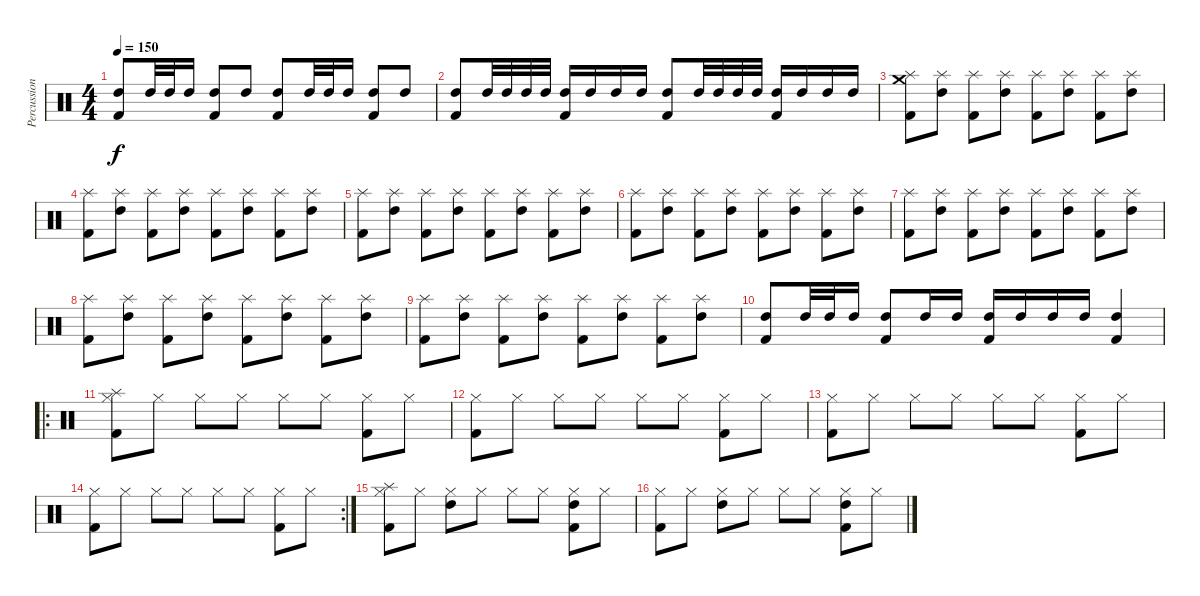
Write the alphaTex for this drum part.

\track ("Percussions" "Percussion") {instrument percussion}
\staff {score}
\articulation defaults
\ts (4 4)
\tempo 150
\clef neutral
\ks c
("Kick (hit) 2" "High Tom (hit)").8{dy f} "High Tom (hit)".32 "High Tom (hit)".32 "High Tom (hit)".16 ("Kick (hit) 2" "High Tom (hit)").8 "High Tom (hit)".8 ("Kick (hit) 2" "High Tom (hit)").8 "High Tom (hit)".32 "High Tom (hit)".32 "High Tom (hit)".16 ("Kick (hit) 2" "High Tom (hit)").8 "High Tom (hit)".8 |
("Kick (hit) 2" "High Tom (hit)").8 "High Tom (hit)".32 "High Tom (hit)".32 "High Tom (hit)".32 "High Tom (hit)".32 ("Kick (hit) 2" "High Tom (hit)").16 "High Tom (hit)".16 "High Tom (hit)".16 "High Tom (hit)".16 ("Kick (hit) 2" "High Tom (hit)").8 "High Tom (hit)".32 "High Tom (hit)".32 "High Tom (hit)".32 "High Tom (hit)".32 ("Kick (hit) 2" "High Tom (hit)").16 "High Tom (hit)".16 "High Tom (hit)".16 "High Tom (hit)".16 |
("Kick (hit) 2" "Crash medium (hit)" "Splash (hit)").8 ("High Tom (hit)" "Splash (hit)").8 ("Kick (hit) 2" "Splash (hit)").8 ("High Tom (hit)" "Splash (hit)").8 ("Kick (hit) 2" "Splash (hit)").8 ("High Tom (hit)" "Splash (hit)").8 ("Kick (hit) 2" "Splash (hit)").8 ("High Tom (hit)" "Splash (hit)").8 |
("Kick (hit) 2" "Splash (hit)").8 ("High Tom (hit)" "Splash (hit)").8 ("Kick (hit) 2" "Splash (hit)").8 ("High Tom (hit)" "Splash (hit)").8 ("Kick (hit) 2" "Splash (hit)").8 ("High Tom (hit)" "Splash (hit)").8 ("Kick (hit) 2" "Splash (hit)").8 ("High Tom (hit)" "Splash (hit)").8 |
("Kick (hit) 2" "Splash (hit)").8 ("High Tom (hit)" "Splash (hit)").8 ("Kick (hit) 2" "Splash (hit)").8 ("High Tom (hit)" "Splash (hit)").8 ("Kick (hit) 2" "Splash (hit)").8 ("High Tom (hit)" "Splash (hit)").8 ("Kick (hit) 2" "Splash (hit)").8 ("High Tom (hit)" "Splash (hit)").8 |
("Kick (hit) 2" "Splash (hit)").8 ("High Tom (hit)" "Splash (hit)").8 ("Kick (hit) 2" "Splash (hit)").8 ("High Tom (hit)" "Splash (hit)").8 ("Kick (hit) 2" "Splash (hit)").8 ("High Tom (hit)" "Splash (hit)").8 ("Kick (hit) 2" "Splash (hit)").8 ("High Tom (hit)" "Splash (hit)").8 |
("Kick (hit) 2" "Splash (hit)").8 ("High Tom (hit)" "Splash (hit)").8 ("Kick (hit) 2" "Splash (hit)").8 ("High Tom (hit)" "Splash (hit)").8 ("Kick (hit) 2" "Splash (hit)").8 ("High Tom (hit)" "Splash (hit)").8 ("Kick (hit) 2" "Splash (hit)").8 ("High Tom (hit)" "Splash (hit)").8 |
("Kick (hit) 2" "Splash (hit)").8 ("High Tom (hit)" "Splash (hit)").8 ("Kick (hit) 2" "Splash (hit)").8 ("High Tom (hit)" "Splash (hit)").8 ("Kick (hit) 2" "Splash (hit)").8 ("High Tom (hit)" "Splash (hit)").8 ("Kick (hit) 2" "Splash (hit)").8 ("High Tom (hit)" "Splash (hit)").8 |
("Kick (hit) 2" "Splash (hit)").8 ("High Tom (hit)" "Splash (hit)").8 ("Kick (hit) 2" "Splash (hit)").8 ("High Tom (hit)" "Splash (hit)").8 ("Kick (hit) 2" "Splash (hit)").8 ("High Tom (hit)" "Splash (hit)").8 ("Kick (hit) 2" "Splash (hit)").8 ("High Tom (hit)" "Splash (hit)").8 |
("Kick (hit) 2" "High Tom (hit)").8 "High Tom (hit)".32 "High Tom (hit)".32 "High Tom (hit)".16 ("Kick (hit) 2" "High Tom (hit)").8 "High Tom (hit)".16 "High Tom (hit)".16 ("Kick (hit) 2" "High Tom (hit)").16 "High Tom (hit)".16 "High Tom (hit)".16 "High Tom (hit)".16 ("Kick (hit) 2" "High Tom (hit)").4 |
\ro
("Kick (hit) 2" "Splash (hit)" "Hi-Hat (closed)").8 "Hi-Hat (closed)".8 "Hi-Hat (closed)".8 "Hi-Hat (closed)".8 "Hi-Hat (closed)".8 "Hi-Hat (closed)".8 ("Kick (hit) 2" "Hi-Hat (closed)").8 "Hi-Hat (closed)".8 |
("Kick (hit) 2" "Hi-Hat (closed)").8 "Hi-Hat (closed)".8 "Hi-Hat (closed)".8 "Hi-Hat (closed)".8 "Hi-Hat (closed)".8 "Hi-Hat (closed)".8 ("Kick (hit) 2" "Hi-Hat (closed)").8 "Hi-Hat (closed)".8 |
("Kick (hit) 2" "Hi-Hat (closed)").8 "Hi-Hat (closed)".8 "Hi-Hat (closed)".8 "Hi-Hat (closed)".8 "Hi-Hat (closed)".8 "Hi-Hat (closed)".8 ("Kick (hit) 2" "Hi-Hat (closed)").8 "Hi-Hat (closed)".8 |
\rc 2
("Kick (hit) 2" "Hi-Hat (closed)").8 "Hi-Hat (closed)".8 "Hi-Hat (closed)".8 "Hi-Hat (closed)".8 "Hi-Hat (closed)".8 "Hi-Hat (closed)".8 ("Kick (hit) 2" "Hi-Hat (closed)").8 "Hi-Hat (closed)".8 |
("Kick (hit) 2" "Splash (hit)" "Hi-Hat (closed)").8 "Hi-Hat (closed)".8 ("High Tom (hit)" "Hi-Hat (closed)").8 "Hi-Hat (closed)".8 "Hi-Hat (closed)".8 "Hi-Hat (closed)".8 ("Kick (hit) 2" "High Tom (hit)" "Hi-Hat (closed)").8 "Hi-Hat (closed)".8 |
("Kick (hit) 2" "Hi-Hat (closed)").8 "Hi-Hat (closed)".8 ("High Tom (hit)" "Hi-Hat (closed)").8 "Hi-Hat (closed)".8 "Hi-Hat (closed)".8 "Hi-Hat (closed)".8 ("Kick (hit) 2" "High Tom (hit)" "Hi-Hat (closed)").8 "Hi-Hat (closed)".8
